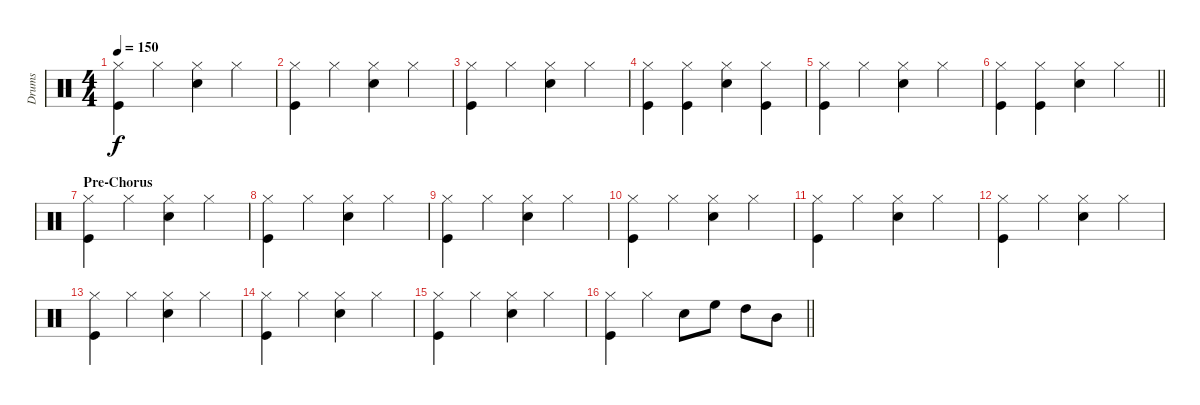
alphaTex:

\track ("Drums" "Drums") {instrument percussion}
\staff {score}
\articulation defaults
\ts (4 4)
\tempo 150
\clef neutral
\ks c
("Hi-Hat (closed)" "Kick (hit)").4{dy f} "Hi-Hat (closed)".4 ("Hi-Hat (closed)" "Snare (hit) 2").4 "Hi-Hat (closed)".4 |
("Hi-Hat (closed)" "Kick (hit)").4 "Hi-Hat (closed)".4 ("Hi-Hat (closed)" "Snare (hit) 2").4 "Hi-Hat (closed)".4 |
("Hi-Hat (closed)" "Kick (hit)").4 "Hi-Hat (closed)".4 ("Hi-Hat (closed)" "Snare (hit) 2").4 "Hi-Hat (closed)".4 |
("Hi-Hat (closed)" "Kick (hit)").4 ("Hi-Hat (closed)" "Kick (hit)").4 ("Hi-Hat (closed)" "Snare (hit) 2").4 ("Hi-Hat (closed)" "Kick (hit)").4 |
("Hi-Hat (closed)" "Kick (hit)").4 "Hi-Hat (closed)".4 ("Hi-Hat (closed)" "Snare (hit) 2").4 "Hi-Hat (closed)".4 |
\barLineRight lightlight
("Hi-Hat (closed)" "Kick (hit)").4 ("Hi-Hat (closed)" "Kick (hit)").4 ("Hi-Hat (closed)" "Snare (hit) 2").4 "Hi-Hat (closed)".4 |
\section ("" "Pre-Chorus")
("Hi-Hat (closed)" "Kick (hit)").4 "Hi-Hat (closed)".4 ("Hi-Hat (closed)" "Snare (hit) 2").4 "Hi-Hat (closed)".4 |
("Hi-Hat (closed)" "Kick (hit)").4 "Hi-Hat (closed)".4 ("Hi-Hat (closed)" "Snare (hit) 2").4 "Hi-Hat (closed)".4 |
("Hi-Hat (closed)" "Kick (hit)").4 "Hi-Hat (closed)".4 ("Hi-Hat (closed)" "Snare (hit) 2").4 "Hi-Hat (closed)".4 |
("Hi-Hat (closed)" "Kick (hit)").4 "Hi-Hat (closed)".4 ("Hi-Hat (closed)" "Snare (hit) 2").4 "Hi-Hat (closed)".4 |
("Hi-Hat (closed)" "Kick (hit)").4 "Hi-Hat (closed)".4 ("Hi-Hat (closed)" "Snare (hit) 2").4 "Hi-Hat (closed)".4 |
("Hi-Hat (closed)" "Kick (hit)").4 "Hi-Hat (closed)".4 ("Hi-Hat (closed)" "Snare (hit) 2").4 "Hi-Hat (closed)".4 |
("Hi-Hat (closed)" "Kick (hit)").4 "Hi-Hat (closed)".4 ("Hi-Hat (closed)" "Snare (hit) 2").4 "Hi-Hat (closed)".4 |
("Hi-Hat (closed)" "Kick (hit)").4 "Hi-Hat (closed)".4 ("Hi-Hat (closed)" "Snare (hit) 2").4 "Hi-Hat (closed)".4 |
("Hi-Hat (closed)" "Kick (hit)").4 "Hi-Hat (closed)".4 ("Hi-Hat (closed)" "Snare (hit) 2").4 "Hi-Hat (closed)".4 |
\barLineRight lightlight
("Hi-Hat (closed)" "Kick (hit)").4 "Hi-Hat (closed)".4 "Snare (hit) 2".8 "High Floor Tom (hit)".8 "High Tom (hit)".8 "Mid Tom (hit)".8
